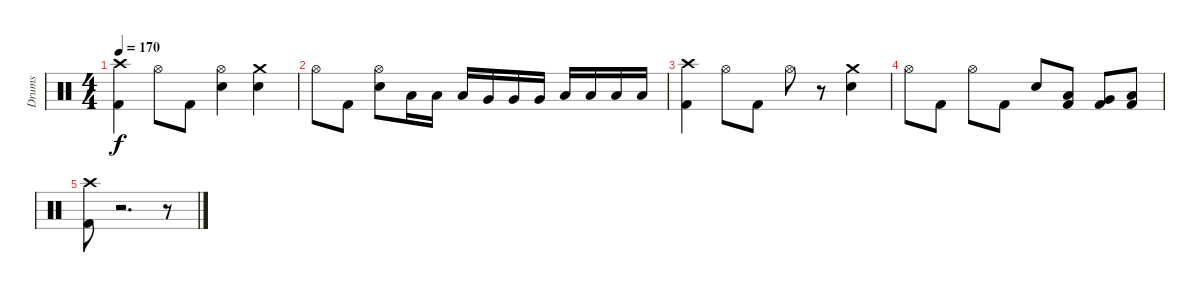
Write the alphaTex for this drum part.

\track ("Drums" "Drums") {instrument percussion}
\staff {score}
\articulation defaults
\ts (4 4)
\tempo 170
\clef neutral
\ks c
("Crash high (hit)" "Kick (hit) 2").4{dy f} "Hi-Hat (open)".8 "Kick (hit) 2".8 ("Hi-Hat (open)" "Snare (hit) 2").4 ("Crash medium (hit)" "Snare (hit) 2").4 |
"Hi-Hat (open)".8 "Kick (hit) 2".8 ("Hi-Hat (open)" "Snare (hit) 2").8 "Low Tom (hit)".16 "Low Tom (hit)".16 "Low Tom (hit)".16 "Very Low Tom (hit)".16 "Very Low Tom (hit)".16 "Very Low Tom (hit)".16 "Low Floor Tom (hit)".16 "Low Floor Tom (hit)".16 "Low Floor Tom (hit)".16 "Low Floor Tom (hit)".16 |
("Crash high (hit)" "Kick (hit) 2").4 "Hi-Hat (open)".8 "Kick (hit) 2".8 "Hi-Hat (open)".8 r.8 ("Crash medium (hit)" "Snare (hit) 2").4 |
"Hi-Hat (open)".8 "Kick (hit) 2".8 "Hi-Hat (open)".8 "Kick (hit) 2".8 "Snare (hit) 2".8 ("Low Tom (hit)" "Kick (hit) 2").8 ("Very Low Tom (hit)" "Kick (hit) 2").8 ("Low Floor Tom (hit)" "Kick (hit) 2").8 |
("Crash high (hit)" "Kick (hit) 2").8 r.2{d} r.8
